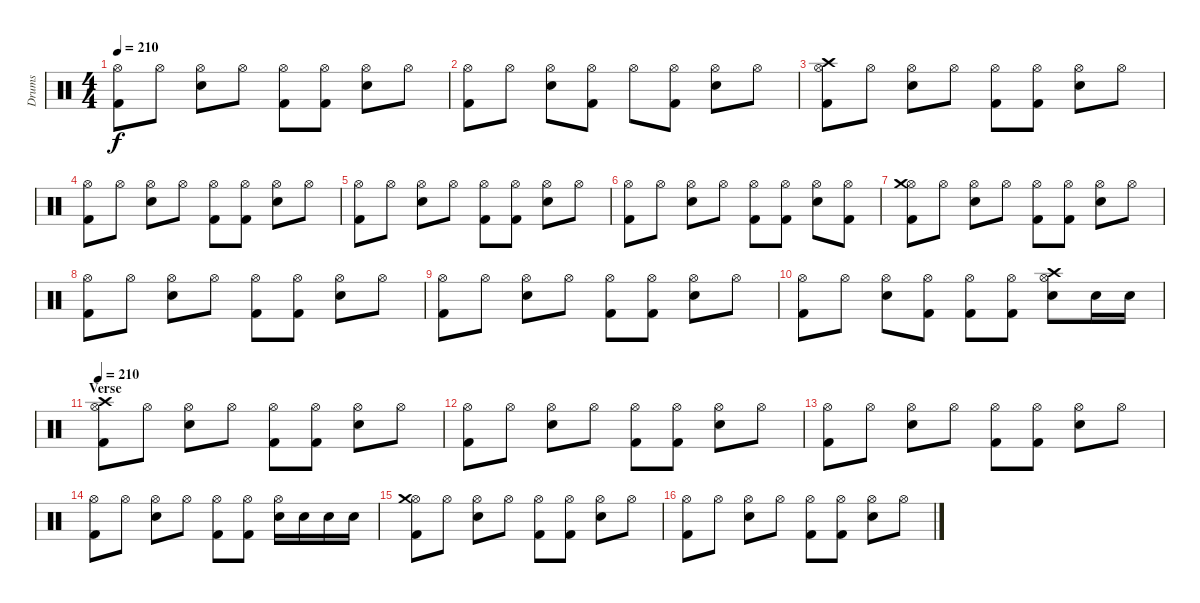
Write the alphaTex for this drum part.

\track ("Drums" "Drums") {instrument percussion}
\staff {score}
\articulation defaults
\ts (4 4)
\tempo 210
\clef neutral
\ks c
("Hi-Hat (open)" "Kick (hit) 2").8{dy f} "Hi-Hat (open)".8 ("Hi-Hat (open)" "Electric Snare (hit)").8 "Hi-Hat (open)".8 ("Hi-Hat (open)" "Kick (hit) 2").8 ("Hi-Hat (open)" "Kick (hit) 2").8 ("Hi-Hat (open)" "Electric Snare (hit)").8 "Hi-Hat (open)".8 |
("Hi-Hat (open)" "Kick (hit) 2").8 "Hi-Hat (open)".8 ("Hi-Hat (open)" "Electric Snare (hit)").8 ("Hi-Hat (open)" "Kick (hit) 2").8 "Hi-Hat (open)".8 ("Hi-Hat (open)" "Kick (hit) 2").8 ("Hi-Hat (open)" "Electric Snare (hit)").8 "Hi-Hat (open)".8 |
("Hi-Hat (open)" "Crash high (hit)" "Kick (hit) 2").8 "Hi-Hat (open)".8 ("Hi-Hat (open)" "Electric Snare (hit)").8 "Hi-Hat (open)".8 ("Hi-Hat (open)" "Kick (hit) 2").8 ("Hi-Hat (open)" "Kick (hit) 2").8 ("Hi-Hat (open)" "Electric Snare (hit)").8 "Hi-Hat (open)".8 |
("Hi-Hat (open)" "Kick (hit) 2").8 "Hi-Hat (open)".8 ("Hi-Hat (open)" "Electric Snare (hit)").8 "Hi-Hat (open)".8 ("Hi-Hat (open)" "Kick (hit) 2").8 ("Hi-Hat (open)" "Kick (hit) 2").8 ("Hi-Hat (open)" "Electric Snare (hit)").8 "Hi-Hat (open)".8 |
("Hi-Hat (open)" "Kick (hit) 2").8 "Hi-Hat (open)".8 ("Hi-Hat (open)" "Electric Snare (hit)").8 "Hi-Hat (open)".8 ("Hi-Hat (open)" "Kick (hit) 2").8 ("Hi-Hat (open)" "Kick (hit) 2").8 ("Hi-Hat (open)" "Electric Snare (hit)").8 "Hi-Hat (open)".8 |
("Hi-Hat (open)" "Kick (hit) 2").8 "Hi-Hat (open)".8 ("Hi-Hat (open)" "Electric Snare (hit)").8 "Hi-Hat (open)".8 ("Hi-Hat (open)" "Kick (hit) 2").8 ("Hi-Hat (open)" "Kick (hit) 2").8 ("Hi-Hat (open)" "Electric Snare (hit)").8 ("Hi-Hat (open)" "Kick (hit) 2").8 |
("Hi-Hat (open)" "Crash medium (hit)" "Kick (hit) 2").8 "Hi-Hat (open)".8 ("Hi-Hat (open)" "Electric Snare (hit)").8 "Hi-Hat (open)".8 ("Hi-Hat (open)" "Kick (hit) 2").8 ("Hi-Hat (open)" "Kick (hit) 2").8 ("Hi-Hat (open)" "Electric Snare (hit)").8 "Hi-Hat (open)".8 |
("Hi-Hat (open)" "Kick (hit) 2").8 "Hi-Hat (open)".8 ("Hi-Hat (open)" "Electric Snare (hit)").8 "Hi-Hat (open)".8 ("Hi-Hat (open)" "Kick (hit) 2").8 ("Hi-Hat (open)" "Kick (hit) 2").8 ("Hi-Hat (open)" "Electric Snare (hit)").8 "Hi-Hat (open)".8 |
("Hi-Hat (open)" "Kick (hit) 2").8 "Hi-Hat (open)".8 ("Hi-Hat (open)" "Electric Snare (hit)").8 "Hi-Hat (open)".8 ("Hi-Hat (open)" "Kick (hit) 2").8 ("Hi-Hat (open)" "Kick (hit) 2").8 ("Hi-Hat (open)" "Electric Snare (hit)").8 "Hi-Hat (open)".8 |
("Hi-Hat (open)" "Kick (hit) 2").8 "Hi-Hat (open)".8 ("Hi-Hat (open)" "Electric Snare (hit)").8 ("Hi-Hat (open)" "Kick (hit) 2").8 ("Hi-Hat (open)" "Kick (hit) 2").8 ("Hi-Hat (open)" "Kick (hit) 2").8 ("Hi-Hat (open)" "Crash high (hit)" "Electric Snare (hit)").8 "Electric Snare (hit)".16 "Electric Snare (hit)".16 |
\section ("" "Verse")
\tempo 210
("Hi-Hat (open)" "Crash high (hit)" "Kick (hit) 2").8 "Hi-Hat (open)".8 ("Hi-Hat (open)" "Electric Snare (hit)").8 "Hi-Hat (open)".8 ("Hi-Hat (open)" "Kick (hit) 2").8 ("Hi-Hat (open)" "Kick (hit) 2").8 ("Hi-Hat (open)" "Electric Snare (hit)").8 "Hi-Hat (open)".8 |
("Hi-Hat (open)" "Kick (hit) 2").8 "Hi-Hat (open)".8 ("Hi-Hat (open)" "Electric Snare (hit)").8 "Hi-Hat (open)".8 ("Hi-Hat (open)" "Kick (hit) 2").8 ("Hi-Hat (open)" "Kick (hit) 2").8 ("Hi-Hat (open)" "Electric Snare (hit)").8 "Hi-Hat (open)".8 |
("Hi-Hat (open)" "Kick (hit) 2").8 "Hi-Hat (open)".8 ("Hi-Hat (open)" "Electric Snare (hit)").8 "Hi-Hat (open)".8 ("Hi-Hat (open)" "Kick (hit) 2").8 ("Hi-Hat (open)" "Kick (hit) 2").8 ("Hi-Hat (open)" "Electric Snare (hit)").8 "Hi-Hat (open)".8 |
("Hi-Hat (open)" "Kick (hit) 2").8 "Hi-Hat (open)".8 ("Hi-Hat (open)" "Electric Snare (hit)").8 "Hi-Hat (open)".8 ("Hi-Hat (open)" "Kick (hit) 2").8 ("Hi-Hat (open)" "Kick (hit) 2").8 ("Hi-Hat (open)" "Electric Snare (hit)").16 "Electric Snare (hit)".16 "Electric Snare (hit)".16 "Electric Snare (hit)".16 |
("Hi-Hat (open)" "Crash medium (hit)" "Kick (hit) 2").8 "Hi-Hat (open)".8 ("Hi-Hat (open)" "Electric Snare (hit)").8 "Hi-Hat (open)".8 ("Hi-Hat (open)" "Kick (hit) 2").8 ("Hi-Hat (open)" "Kick (hit) 2").8 ("Hi-Hat (open)" "Electric Snare (hit)").8 "Hi-Hat (open)".8 |
("Hi-Hat (open)" "Kick (hit) 2").8 "Hi-Hat (open)".8 ("Hi-Hat (open)" "Electric Snare (hit)").8 "Hi-Hat (open)".8 ("Hi-Hat (open)" "Kick (hit) 2").8 ("Hi-Hat (open)" "Kick (hit) 2").8 ("Hi-Hat (open)" "Electric Snare (hit)").8 "Hi-Hat (open)".8
